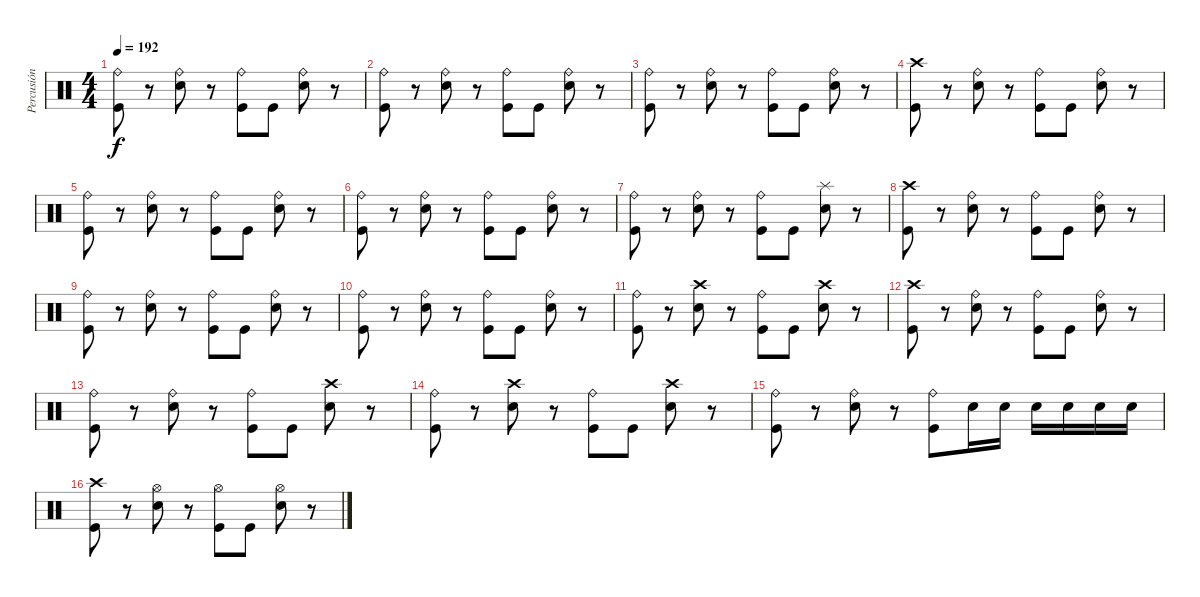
\track ("Percusión" "Percusión") {instrument percussion}
\staff {score}
\articulation defaults
\ts (4 4)
\tempo 192
\clef neutral
\ks c
("Kick (hit)" "Ride (bell)").8{dy f} r.8 ("Electric Snare (hit)" "Ride (bell)").8 r.8 ("Kick (hit)" "Ride (bell)").8 "Kick (hit)".8 ("Electric Snare (hit)" "Ride (bell)").8 r.8 |
("Kick (hit)" "Ride (bell)").8 r.8 ("Electric Snare (hit)" "Ride (bell)").8 r.8 ("Kick (hit)" "Ride (bell)").8 "Kick (hit)".8 ("Electric Snare (hit)" "Ride (bell)").8 r.8 |
("Kick (hit)" "Ride (bell)").8 r.8 ("Electric Snare (hit)" "Ride (bell)").8 r.8 ("Kick (hit)" "Ride (bell)").8 "Kick (hit)".8 ("Electric Snare (hit)" "Ride (bell)").8 r.8 |
("Kick (hit)" "Crash high (hit)").8 r.8 ("Electric Snare (hit)" "Ride (bell)").8 r.8 ("Kick (hit)" "Ride (bell)").8 "Kick (hit)".8 ("Electric Snare (hit)" "Ride (bell)").8 r.8 |
("Kick (hit)" "Ride (bell)").8 r.8 ("Electric Snare (hit)" "Ride (bell)").8 r.8 ("Kick (hit)" "Ride (bell)").8 "Kick (hit)".8 ("Electric Snare (hit)" "Ride (bell)").8 r.8 |
("Kick (hit)" "Ride (bell)").8 r.8 ("Electric Snare (hit)" "Ride (bell)").8 r.8 ("Kick (hit)" "Ride (bell)").8 "Kick (hit)".8 ("Electric Snare (hit)" "Ride (bell)").8 r.8 |
("Kick (hit)" "Ride (bell)").8 r.8 ("Electric Snare (hit)" "Ride (bell)").8 r.8 ("Kick (hit)" "Ride (bell)").8 "Kick (hit)".8 ("Electric Snare (hit)" "Splash (hit)").8 r.8 |
("Kick (hit)" "Crash high (hit)").8 r.8 ("Electric Snare (hit)" "Ride (bell)").8 r.8 ("Kick (hit)" "Ride (bell)").8 "Kick (hit)".8 ("Electric Snare (hit)" "Ride (bell)").8 r.8 |
("Kick (hit)" "Ride (bell)").8 r.8 ("Electric Snare (hit)" "Ride (bell)").8 r.8 ("Kick (hit)" "Ride (bell)").8 "Kick (hit)".8 ("Electric Snare (hit)" "Ride (bell)").8 r.8 |
("Kick (hit)" "Ride (bell)").8 r.8 ("Electric Snare (hit)" "Ride (bell)").8 r.8 ("Kick (hit)" "Ride (bell)").8 "Kick (hit)".8 ("Electric Snare (hit)" "Ride (bell)").8 r.8 |
("Kick (hit)" "Ride (bell)").8 r.8 ("Electric Snare (hit)" "Crash high (hit)").8 r.8 ("Kick (hit)" "Ride (bell)").8 "Kick (hit)".8 ("Electric Snare (hit)" "Crash high (hit)").8 r.8 |
("Kick (hit)" "Crash high (hit)").8 r.8 ("Electric Snare (hit)" "Ride (bell)").8 r.8 ("Kick (hit)" "Ride (bell)").8 "Kick (hit)".8 ("Electric Snare (hit)" "Ride (bell)").8 r.8 |
("Kick (hit)" "Ride (bell)").8 r.8 ("Electric Snare (hit)" "Ride (bell)").8 r.8 ("Kick (hit)" "Ride (bell)").8 "Kick (hit)".8 ("Electric Snare (hit)" "Crash high (hit)").8 r.8 |
("Kick (hit)" "Ride (bell)").8 r.8 ("Electric Snare (hit)" "Crash high (hit)").8 r.8 ("Kick (hit)" "Ride (bell)").8 "Kick (hit)".8 ("Electric Snare (hit)" "Crash high (hit)").8 r.8 |
("Kick (hit)" "Ride (bell)").8 r.8 ("Electric Snare (hit)" "Ride (bell)").8 r.8 ("Kick (hit)" "Ride (bell)").8 "Electric Snare (hit)".16 "Electric Snare (hit)".16 "Electric Snare (hit)".16 "Electric Snare (hit)".16 "Electric Snare (hit)".16 "Electric Snare (hit)".16 |
("Kick (hit)" "Crash high (hit)").8 r.8 ("Electric Snare (hit)" "Hi-Hat (open)").8 r.8 ("Kick (hit)" "Hi-Hat (open)").8 "Kick (hit)".8 ("Electric Snare (hit)" "Hi-Hat (open)").8 r.8
